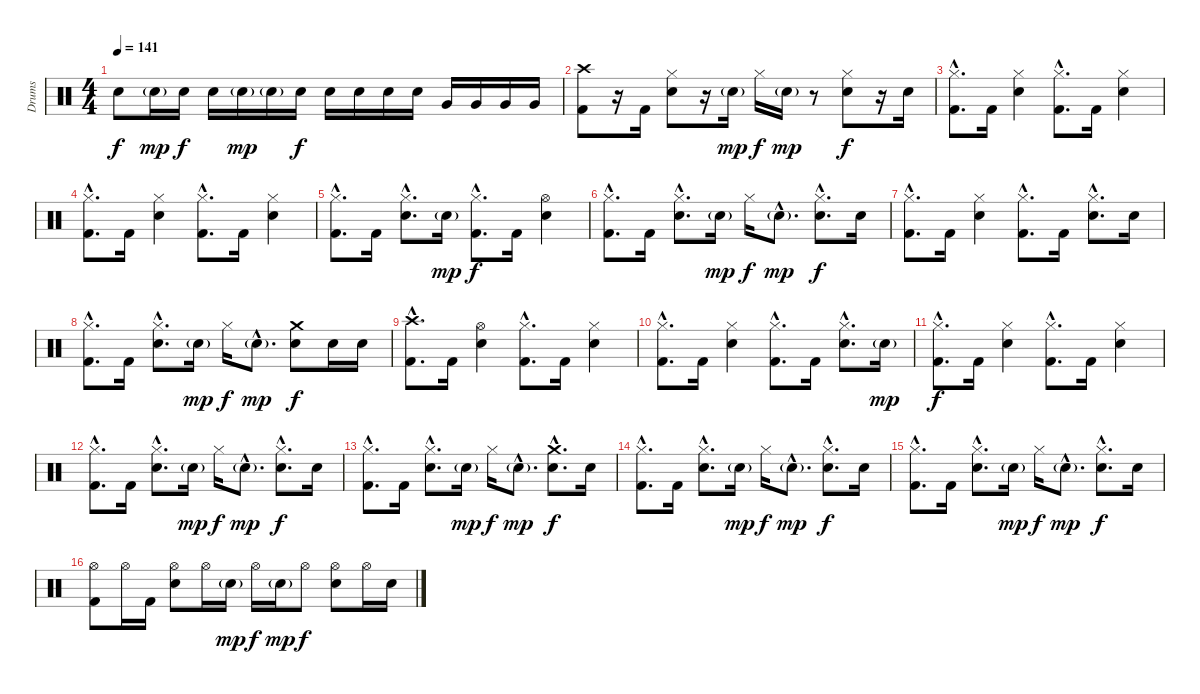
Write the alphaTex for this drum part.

\track ("Drums" "Drums") {instrument percussion}
\staff {score}
\articulation defaults
\ts (4 4)
\tempo 141
\clef neutral
\ks c "Snare (hit) 2".8{dy f} "Snare (hit) 2"{g}.16{dy mp} "Snare (hit) 2".16{dy f} "Snare (hit) 2".16 "Snare (hit) 2"{g}.16{dy mp} "Snare (hit) 2"{g}.16 "Snare (hit) 2".16{dy f} "Snare (hit) 2".16 "Snare (hit) 2".16 "Snare (hit) 2".16 "Snare (hit) 2".16 "Very Low Tom (hit)".16 "Very Low Tom (hit)".16 "Very Low Tom (hit)".16 "Very Low Tom (hit)".16
|
("Crash high (hit)" "Kick (hit) 2").8 r.16 "Kick (hit) 2".16 ("Hi-Hat (closed)" "Snare (hit) 2").8 r.16 "Snare (hit) 2"{g}.16{dy mp} "Hi-Hat (closed)".16{dy f} "Snare (hit) 2"{g}.16{dy mp} r.8 ("Hi-Hat (closed)" "Snare (hit) 2").8{dy f} r.16 "Snare (hit) 2".16 |
("Hi-Hat (closed)"{hac} "Kick (hit) 2"{hac}).8{d} "Kick (hit) 2".16 ("Hi-Hat (closed)" "Snare (hit) 2").4 ("Hi-Hat (closed)"{hac} "Kick (hit) 2"{hac}).8{d} "Kick (hit) 2".16 ("Hi-Hat (closed)" "Snare (hit) 2").4 |
("Hi-Hat (closed)"{hac} "Kick (hit) 2"{hac}).8{d} "Kick (hit) 2".16 ("Hi-Hat (closed)" "Snare (hit) 2").4 ("Hi-Hat (closed)"{hac} "Kick (hit) 2"{hac}).8{d} "Kick (hit) 2".16 ("Hi-Hat (closed)" "Snare (hit) 2").4 |
("Hi-Hat (closed)"{hac} "Kick (hit) 2"{hac}).8{d} "Kick (hit) 2".16 ("Hi-Hat (closed)"{hac} "Snare (hit) 2"{hac}).8{d} "Snare (hit) 2"{g}.16{dy mp} ("Hi-Hat (closed)"{hac} "Kick (hit) 2"{hac}).8{d dy f} "Kick (hit) 2".16 ("Hi-Hat (open)" "Snare (hit) 2").4 |
("Hi-Hat (closed)"{hac} "Kick (hit) 2"{hac}).8{d} "Kick (hit) 2".16 ("Hi-Hat (closed)"{hac} "Snare (hit) 2"{hac}).8{d} "Snare (hit) 2"{g}.16{dy mp} "Hi-Hat (closed)".16{dy f} "Snare (hit) 2"{g hac}.8{d dy mp} ("Hi-Hat (closed)"{hac} "Snare (hit) 2"{hac}).8{d dy f} "Snare (hit) 2".16 |
("Hi-Hat (closed)"{hac} "Kick (hit) 2"{hac}).8{d} "Kick (hit) 2".16 ("Hi-Hat (closed)" "Snare (hit) 2").4 ("Hi-Hat (closed)"{hac} "Kick (hit) 2"{hac}).8{d} "Kick (hit) 2".16 ("Hi-Hat (closed)"{hac} "Snare (hit) 2"{hac}).8{d} "Snare (hit) 2".16 |
("Hi-Hat (closed)"{hac} "Kick (hit) 2"{hac}).8{d} "Kick (hit) 2".16 ("Hi-Hat (closed)"{hac} "Snare (hit) 2"{hac}).8{d} "Snare (hit) 2"{g}.16{dy mp} "Hi-Hat (closed)".16{dy f} "Snare (hit) 2"{g hac}.8{d dy mp} ("Crash medium (hit)" "Snare (hit) 2").8{dy f} "Snare (hit) 2".16 "Snare (hit) 2".16 |
("Crash high (hit)"{hac} "Kick (hit) 2"{hac}).8{d} "Kick (hit) 2".16 ("Hi-Hat (open)" "Snare (hit) 2").4 ("Hi-Hat (closed)"{hac} "Kick (hit) 2"{hac}).8{d} "Kick (hit) 2".16 ("Hi-Hat (closed)" "Snare (hit) 2").4 |
("Hi-Hat (closed)"{hac} "Kick (hit) 2"{hac}).8{d} "Kick (hit) 2".16 ("Hi-Hat (closed)" "Snare (hit) 2").4 ("Hi-Hat (closed)"{hac} "Kick (hit) 2"{hac}).8{d} "Kick (hit) 2".16 ("Hi-Hat (closed)"{hac} "Snare (hit) 2"{hac}).8{d} "Snare (hit) 2"{g}.16{dy mp} |
("Hi-Hat (closed)"{hac} "Kick (hit) 2"{hac}).8{d dy f} "Kick (hit) 2".16 ("Hi-Hat (closed)" "Snare (hit) 2").4 ("Hi-Hat (closed)"{hac} "Kick (hit) 2"{hac}).8{d} "Kick (hit) 2".16 ("Hi-Hat (closed)" "Snare (hit) 2").4 |
("Hi-Hat (closed)"{hac} "Kick (hit) 2"{hac}).8{d} "Kick (hit) 2".16 ("Hi-Hat (closed)"{hac} "Snare (hit) 2"{hac}).8{d} "Snare (hit) 2"{g}.16{dy mp} "Hi-Hat (closed)".16{dy f} "Snare (hit) 2"{g hac}.8{d dy mp} ("Hi-Hat (closed)"{hac} "Snare (hit) 2"{hac}).8{d dy f} "Snare (hit) 2".16 |
("Hi-Hat (closed)"{hac} "Kick (hit) 2"{hac}).8{d} "Kick (hit) 2".16 ("Hi-Hat (closed)"{hac} "Snare (hit) 2"{hac}).8{d} "Snare (hit) 2"{g}.16{dy mp} "Hi-Hat (closed)".16{dy f} "Snare (hit) 2"{g hac}.8{d dy mp} ("Crash medium (hit)"{hac} "Snare (hit) 2"{hac}).8{d dy f} "Snare (hit) 2".16 |
("Hi-Hat (closed)"{hac} "Kick (hit) 2"{hac}).8{d} "Kick (hit) 2".16 ("Hi-Hat (closed)"{hac} "Snare (hit) 2"{hac}).8{d} "Snare (hit) 2"{g}.16{dy mp} "Hi-Hat (closed)".16{dy f} "Snare (hit) 2"{g hac}.8{d dy mp} ("Hi-Hat (closed)"{hac} "Snare (hit) 2"{hac}).8{d dy f} "Snare (hit) 2".16 |
("Hi-Hat (closed)"{hac} "Kick (hit) 2"{hac}).8{d} "Kick (hit) 2".16 ("Hi-Hat (closed)"{hac} "Snare (hit) 2"{hac}).8{d} "Snare (hit) 2"{g}.16{dy mp} "Hi-Hat (closed)".16{dy f} "Snare (hit) 2"{g hac}.8{d dy mp} ("Hi-Hat (closed)"{hac} "Snare (hit) 2"{hac}).8{d dy f} "Snare (hit) 2".16 |
("Hi-Hat (open)" "Kick (hit) 2").8 "Hi-Hat (open)".16 "Kick (hit) 2".16 ("Hi-Hat (open)" "Snare (hit) 2").8 "Hi-Hat (open)".16 "Snare (hit) 2"{g}.16{dy mp} "Hi-Hat (open)".16{dy f} "Snare (hit) 2"{g}.16{dy mp} "Hi-Hat (open)".8{dy f} ("Hi-Hat (open)" "Snare (hit) 2").8 "Hi-Hat (open)".16 "Snare (hit) 2".16
